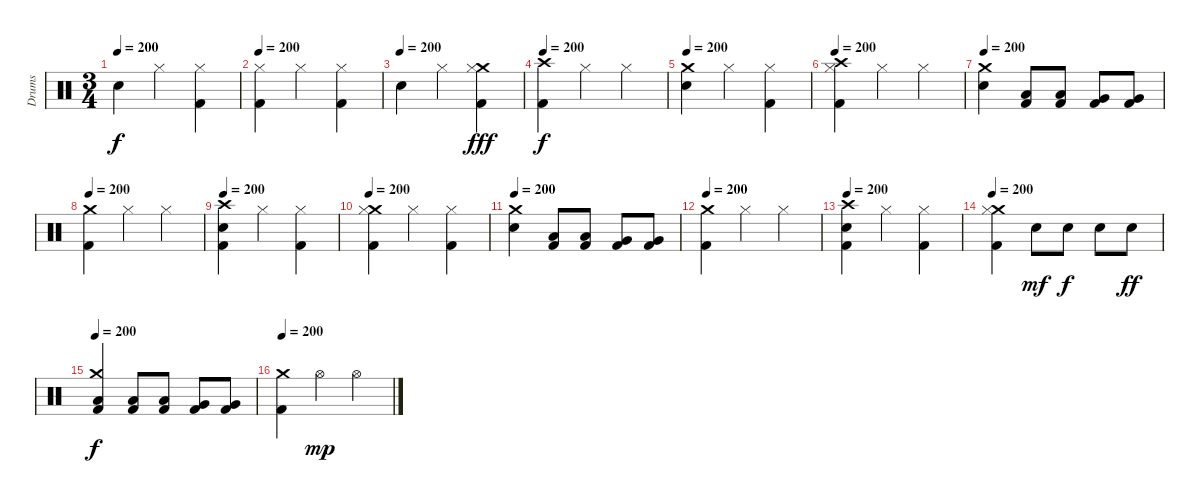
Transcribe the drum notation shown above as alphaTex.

\track ("Drums" "Drums") {instrument percussion}
\staff {score}
\articulation defaults
\ts (3 4)
\tempo 200
\clef neutral
\ks c "Electric Snare (hit)".4{dy f} "Hi-Hat (closed)".4
("Hi-Hat (closed)" "Kick (hit) 2").4 |
\tempo 200
("Hi-Hat (closed)" "Kick (hit) 2").4 "Hi-Hat (closed)".4 ("Hi-Hat (closed)" "Kick (hit) 2").4 |
\tempo (200)
"Electric Snare (hit)".4 "Hi-Hat (closed)".4 ("Crash medium (hit)" "Hi-Hat (closed)" "Kick (hit) 2").4{dy fff} |
\tempo 200
("Crash high (hit)" "Kick (hit) 2").4{dy f} "Hi-Hat (closed)".4 "Hi-Hat (closed)".4 |
\tempo 200
("Crash medium (hit)" "Electric Snare (hit)").4 "Hi-Hat (closed)".4 ("Hi-Hat (closed)" "Kick (hit) 2").4 |
\tempo 200
("Crash high (hit)" "Hi-Hat (closed)" "Kick (hit) 2").4 "Hi-Hat (closed)".4 "Hi-Hat (closed)".4 |
\tempo 200
("Crash medium (hit)" "Electric Snare (hit)").4 ("Low Tom (hit)" "Kick (hit) 2").8 ("Low Tom (hit)" "Kick (hit) 2").8 ("Very Low Tom (hit)" "Kick (hit) 2").8 ("Very Low Tom (hit)" "Kick (hit) 2").8 |
\tempo 200
("Crash medium (hit)" "Kick (hit) 2").4 "Hi-Hat (closed)".4 "Hi-Hat (closed)".4 |
\tempo 200
("Crash high (hit)" "Electric Snare (hit)" "Kick (hit) 2").4 "Hi-Hat (closed)".4 ("Hi-Hat (closed)" "Kick (hit) 2").4 |
\tempo 200
("Crash medium (hit)" "Hi-Hat (closed)" "Kick (hit) 2").4 "Hi-Hat (closed)".4 ("Hi-Hat (closed)" "Kick (hit) 2").4 |
\tempo 200
("Crash medium (hit)" "Electric Snare (hit)").4 ("Low Tom (hit)" "Kick (hit) 2").8 ("Low Tom (hit)" "Kick (hit) 2").8 ("Very Low Tom (hit)" "Kick (hit) 2").8 ("Very Low Tom (hit)" "Kick (hit) 2").8 |
\tempo 200
("Crash medium (hit)" "Kick (hit) 2").4 "Hi-Hat (closed)".4 "Hi-Hat (closed)".4 |
\tempo 200
("Crash high (hit)" "Electric Snare (hit)" "Kick (hit) 2").4 "Hi-Hat (closed)".4 ("Hi-Hat (closed)" "Kick (hit) 2").4 |
\tempo 200
("Crash medium (hit)" "Hi-Hat (closed)" "Kick (hit) 2").4 "Electric Snare (hit)".8{dy mf} "Electric Snare (hit)".8{dy f} "Electric Snare (hit)".8 "Electric Snare (hit)".8{dy ff} |
\tempo 200
("Crash medium (hit)" "Low Tom (hit)" "Kick (hit) 2").4{dy f} ("Low Tom (hit)" "Kick (hit) 2").8 ("Low Tom (hit)" "Kick (hit) 2").8 ("Very Low Tom (hit)" "Kick (hit) 2").8 ("Very Low Tom (hit)" "Kick (hit) 2").8 |
\tempo 200
("Crash medium (hit)" "Kick (hit) 2").4 "Hi-Hat (open)".4{dy mp} "Hi-Hat (open)".4
